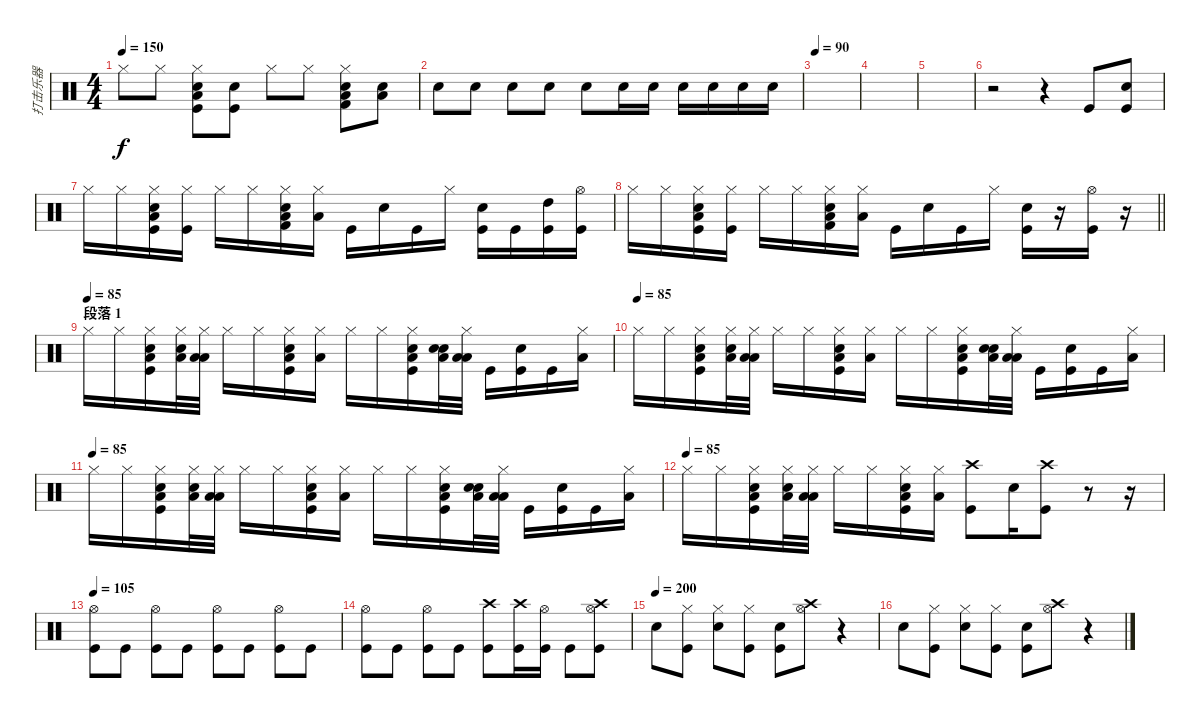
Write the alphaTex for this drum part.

\track ("打击乐器" "打击乐器") {instrument percussion}
\staff {score}
\articulation defaults
\ts (4 4)
\tempo 150
\clef neutral
\ks c "Hi-Hat (closed)".8{dy f} "Hi-Hat (closed)".8
("Snare (hit) 2" "Low Tom (hit)" "Hi-Hat (closed)" "Kick (hit)").8 ("Snare (hit) 2" "Kick (hit)").8 "Hi-Hat (closed)".8 "Hi-Hat (closed)".8 ("Snare (hit) 2" "Low Tom (hit)" "Hi-Hat (closed)" "Kick (hit) 2").8 ("Snare (hit) 2" "Low Tom (hit)").8 |
"Snare (hit) 2".8 "Snare (hit) 2".8 "Snare (hit) 2".8 "Snare (hit) 2".8 "Snare (hit) 2".8 "Snare (hit) 2".16 "Snare (hit) 2".16 "Snare (hit) 2".16 "Snare (hit) 2".16 "Snare (hit) 2".16 "Snare (hit) 2".16 |
\tempo 20
\tempo 90
|
|
|
r.2 r.4 "Kick (hit)".8 ("Snare (hit) 2" "Kick (hit)").8 |
"Hi-Hat (closed)".16 "Hi-Hat (closed)".16 ("Snare (hit) 2" "Low Tom (hit)" "Hi-Hat (closed)" "Kick (hit)").16 ("Hi-Hat (closed)" "Kick (hit)").16 "Hi-Hat (closed)".16 "Hi-Hat (closed)".16 ("Snare (hit) 2" "Low Tom (hit)" "Hi-Hat (closed)" "Kick (hit) 2").16 ("Hi-Hat (closed)" "Low Tom (hit)").16 "Kick (hit)".16 "Snare (hit) 2".16 "Kick (hit)".16 "Hi-Hat (closed)".16 ("Snare (hit) 2" "Kick (hit)").16 "Kick (hit)".16 ("High Tom (hit)" "Kick (hit)").16 ("Hi-Hat (open)" "Kick (hit)").16 |
\barLineRight lightlight "Hi-Hat (closed)".16 "Hi-Hat (closed)".16
("Snare (hit) 2" "Low Tom (hit)" "Hi-Hat (closed)" "Kick (hit)").16 ("Hi-Hat (closed)" "Kick (hit)").16 "Hi-Hat (closed)".16 "Hi-Hat (closed)".16 ("Snare (hit) 2" "Low Tom (hit)" "Hi-Hat (closed)" "Kick (hit) 2").16 ("Hi-Hat (closed)" "Low Tom (hit)").16 "Kick (hit)".16 "Snare (hit) 2".16 "Kick (hit)".16 "Hi-Hat (closed)".16 ("Snare (hit) 2" "Kick (hit)").16 r.16 ("Hi-Hat (open)" "Kick (hit)").16 r.16 |
\section ("" "段落 1")
\tempo (85)
"Hi-Hat (closed)".16 "Hi-Hat (closed)".16 ("Snare (hit) 2" "Low Tom (hit)" "Hi-Hat (closed)" "Kick (hit)").16 ("Snare (hit) 2" "Hi-Hat (closed)" "Low Tom (hit)").32 ("Low Tom (hit)" "Hi-Hat (closed)" "Low Tom (hit)").32 "Hi-Hat (closed)".16 "Hi-Hat (closed)".16 ("Snare (hit) 2" "Low Tom (hit)" "Hi-Hat (closed)" "Kick (hit)").16 ("Hi-Hat (closed)" "Low Tom (hit)").16 "Hi-Hat (closed)".16 "Hi-Hat (closed)".16 ("Snare (hit) 2" "Low Tom (hit)" "Hi-Hat (closed)" "Kick (hit)").16 ("Snare (hit) 2" "Snare (hit) 2" "Low Tom (hit)").32 ("Low Tom (hit)" "Hi-Hat (closed)" "Low Tom (hit)").32 "Kick (hit)".16 ("Snare (hit) 2" "Kick (hit)").16 "Kick (hit)".16 ("Low Tom (hit)" "Hi-Hat (closed)").16 |
\tempo (85)
"Hi-Hat (closed)".16 "Hi-Hat (closed)".16 ("Snare (hit) 2" "Low Tom (hit)" "Hi-Hat (closed)" "Kick (hit)").16 ("Snare (hit) 2" "Hi-Hat (closed)" "Low Tom (hit)").32 ("Low Tom (hit)" "Hi-Hat (closed)" "Low Tom (hit)").32 "Hi-Hat (closed)".16 "Hi-Hat (closed)".16 ("Snare (hit) 2" "Low Tom (hit)" "Hi-Hat (closed)" "Kick (hit)").16 ("Hi-Hat (closed)" "Low Tom (hit)").16 "Hi-Hat (closed)".16 "Hi-Hat (closed)".16 ("Snare (hit) 2" "Low Tom (hit)" "Hi-Hat (closed)" "Kick (hit)").16 ("Snare (hit) 2" "Snare (hit) 2" "Low Tom (hit)").32 ("Low Tom (hit)" "Hi-Hat (closed)" "Low Tom (hit)").32 "Kick (hit)".16 ("Snare (hit) 2" "Kick (hit)").16 "Kick (hit)".16 ("Low Tom (hit)" "Hi-Hat (closed)").16 |
\tempo (85)
"Hi-Hat (closed)".16 "Hi-Hat (closed)".16 ("Snare (hit) 2" "Low Tom (hit)" "Hi-Hat (closed)" "Kick (hit)").16 ("Snare (hit) 2" "Hi-Hat (closed)" "Low Tom (hit)").32 ("Low Tom (hit)" "Hi-Hat (closed)" "Low Tom (hit)").32 "Hi-Hat (closed)".16 "Hi-Hat (closed)".16 ("Snare (hit) 2" "Low Tom (hit)" "Hi-Hat (closed)" "Kick (hit)").16 ("Hi-Hat (closed)" "Low Tom (hit)").16 "Hi-Hat (closed)".16 "Hi-Hat (closed)".16 ("Snare (hit) 2" "Low Tom (hit)" "Hi-Hat (closed)" "Kick (hit)").16 ("Snare (hit) 2" "Snare (hit) 2" "Low Tom (hit)").32 ("Low Tom (hit)" "Hi-Hat (closed)" "Low Tom (hit)").32 "Kick (hit)".16 ("Snare (hit) 2" "Kick (hit)").16 "Kick (hit)".16 ("Low Tom (hit)" "Hi-Hat (closed)").16 |
\tempo (85)
"Hi-Hat (closed)".16 "Hi-Hat (closed)".16 ("Snare (hit) 2" "Low Tom (hit)" "Hi-Hat (closed)" "Kick (hit)").16 ("Snare (hit) 2" "Hi-Hat (closed)" "Low Tom (hit)").32 ("Low Tom (hit)" "Hi-Hat (closed)" "Low Tom (hit)").32 "Hi-Hat (closed)".16 "Hi-Hat (closed)".16 ("Snare (hit) 2" "Low Tom (hit)" "Hi-Hat (closed)" "Kick (hit)").16 ("Hi-Hat (closed)" "Low Tom (hit)").16 ("Kick (hit)" "Crash high (hit)").8 "Snare (hit) 2".16 ("Crash high (hit)" "Kick (hit)").8 r.8 r.16 |
\tempo 105
("Hi-Hat (open)" "Kick (hit)").8 "Kick (hit)".8 ("Hi-Hat (open)" "Kick (hit)").8 "Kick (hit)".8 ("Hi-Hat (open)" "Kick (hit)").8 "Kick (hit)".8 ("Hi-Hat (open)" "Kick (hit)").8 "Kick (hit)".8 |
("Hi-Hat (open)" "Kick (hit)").8 "Kick (hit)".8 ("Hi-Hat (open)" "Kick (hit)").8 "Kick (hit)".8 ("Crash high (hit)" "Kick (hit)").8 ("Crash high (hit)" "Kick (hit)").16 ("Hi-Hat (open)" "Kick (hit)").16 "Kick (hit)".8 ("Hi-Hat (open)" "Kick (hit)" "Crash high (hit)").8 |
\tempo (200)
"Snare (hit) 2".8 ("Hi-Hat (closed)" "Kick (hit)").8 ("Snare (hit) 2" "Hi-Hat (closed)").8 ("Hi-Hat (closed)" "Kick (hit)").8 ("Snare (hit) 2" "Kick (hit)").8 ("Hi-Hat (open)" "Crash high (hit)").8 r.4 |
"Snare (hit) 2".8 ("Hi-Hat (closed)" "Kick (hit)").8 ("Snare (hit) 2" "Hi-Hat (closed)").8 ("Hi-Hat (closed)" "Kick (hit)").8 ("Snare (hit) 2" "Kick (hit)").8 ("Hi-Hat (open)" "Crash high (hit)").8 r.4
